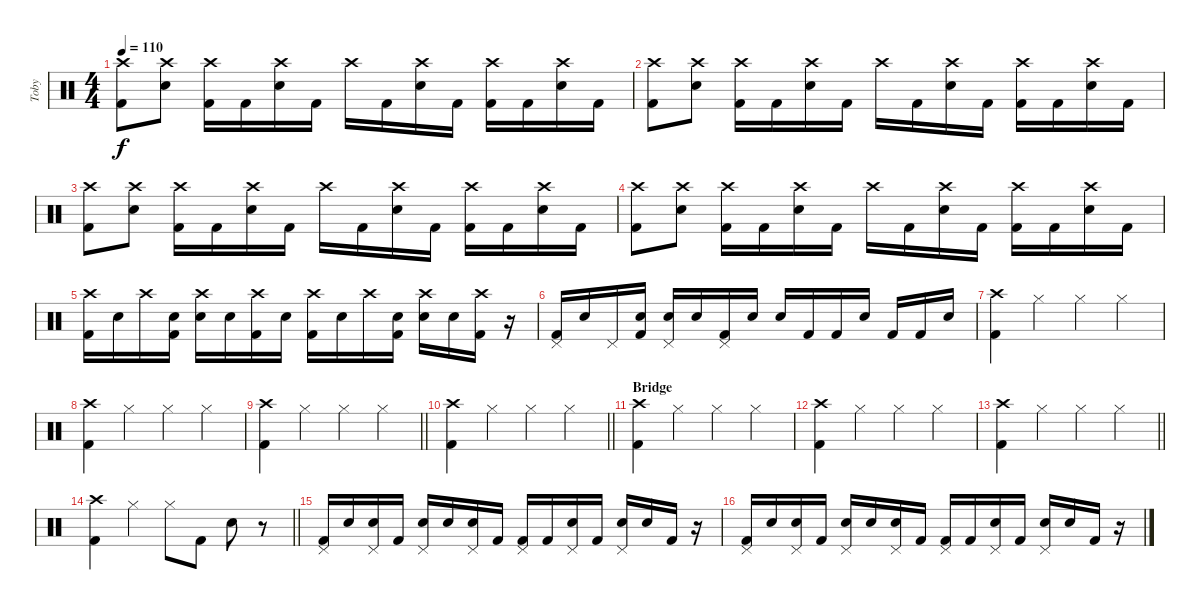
\track ("Toby" "Toby") {instrument percussion}
\staff {score}
\articulation defaults
\ts (4 4)
\tempo 110
\clef neutral
\ks c
("Crash high (hit)" "Kick (hit) 2").8{dy f} ("Crash high (hit)" "Electric Snare (hit)").8 ("Crash high (hit)" "Kick (hit) 2").16 "Kick (hit) 2".16 ("Crash high (hit)" "Electric Snare (hit)").16 "Kick (hit) 2".16 "Crash high (hit)".16 "Kick (hit) 2".16 ("Crash high (hit)" "Electric Snare (hit)").16 "Kick (hit) 2".16 ("Crash high (hit)" "Kick (hit) 2").16 "Kick (hit) 2".16 ("Crash high (hit)" "Electric Snare (hit)").16 "Kick (hit) 2".16 |
("Crash high (hit)" "Kick (hit) 2").8 ("Crash high (hit)" "Electric Snare (hit)").8 ("Crash high (hit)" "Kick (hit) 2").16 "Kick (hit) 2".16 ("Crash high (hit)" "Electric Snare (hit)").16 "Kick (hit) 2".16 "Crash high (hit)".16 "Kick (hit) 2".16 ("Crash high (hit)" "Electric Snare (hit)").16 "Kick (hit) 2".16 ("Crash high (hit)" "Kick (hit) 2").16 "Kick (hit) 2".16 ("Crash high (hit)" "Electric Snare (hit)").16 "Kick (hit) 2".16 |
("Crash high (hit)" "Kick (hit) 2").8 ("Crash high (hit)" "Electric Snare (hit)").8 ("Crash high (hit)" "Kick (hit) 2").16 "Kick (hit) 2".16 ("Crash high (hit)" "Electric Snare (hit)").16 "Kick (hit) 2".16 "Crash high (hit)".16 "Kick (hit) 2".16 ("Crash high (hit)" "Electric Snare (hit)").16 "Kick (hit) 2".16 ("Crash high (hit)" "Kick (hit) 2").16 "Kick (hit) 2".16 ("Crash high (hit)" "Electric Snare (hit)").16 "Kick (hit) 2".16 |
("Crash high (hit)" "Kick (hit) 2").8 ("Crash high (hit)" "Electric Snare (hit)").8 ("Crash high (hit)" "Kick (hit) 2").16 "Kick (hit) 2".16 ("Crash high (hit)" "Electric Snare (hit)").16 "Kick (hit) 2".16 "Crash high (hit)".16 "Kick (hit) 2".16 ("Crash high (hit)" "Electric Snare (hit)").16 "Kick (hit) 2".16 ("Crash high (hit)" "Kick (hit) 2").16 "Kick (hit) 2".16 ("Crash high (hit)" "Electric Snare (hit)").16 "Kick (hit) 2".16 |
("Crash high (hit)" "Kick (hit) 2").16 "Snare (hit)".16 "Crash high (hit)".16 ("Snare (hit)" "Kick (hit) 2").16 ("Crash high (hit)" "Electric Snare (hit)").16 "Snare (hit)".16 ("Crash high (hit)" "Kick (hit) 2").16 "Snare (hit)".16 ("Crash high (hit)" "Kick (hit) 2").16 "Snare (hit)".16 "Crash high (hit)".16 ("Snare (hit)" "Kick (hit) 2").16 ("Crash high (hit)" "Electric Snare (hit)").16 "Snare (hit)".16 ("Crash high (hit)" "Kick (hit) 2").16 r.16 |
("Pedal Hi-Hat (hit)" "Kick (hit) 2").16 "Snare (hit)".16 "Pedal Hi-Hat (hit)".16 ("Snare (hit)" "Kick (hit) 2").16 ("Pedal Hi-Hat (hit)" "Electric Snare (hit)").16 "Snare (hit)".16 ("Pedal Hi-Hat (hit)" "Kick (hit) 2").16 "Snare (hit)".16 "Electric Snare (hit)".16 "Kick (hit) 2".16 "Kick (hit) 2".16 "Electric Snare (hit)".16 "Kick (hit) 2".16 "Kick (hit) 2".16 "Electric Snare (hit)".16 |
("Crash high (hit)" "Kick (hit) 2").4 "Hi-Hat (closed)".4 "Hi-Hat (closed)".4 "Hi-Hat (closed)".4 |
("Crash high (hit)" "Kick (hit) 2").4 "Hi-Hat (closed)".4 "Hi-Hat (closed)".4 "Hi-Hat (closed)".4 |
\barLineRight lightlight
("Crash high (hit)" "Kick (hit) 2").4 "Hi-Hat (closed)".4 "Hi-Hat (closed)".4 "Hi-Hat (closed)".4 |
\barLineRight lightlight
("Crash high (hit)" "Kick (hit) 2").4 "Hi-Hat (closed)".4 "Hi-Hat (closed)".4 "Hi-Hat (closed)".4 |
\section ("" "Bridge")
("Crash high (hit)" "Kick (hit) 2").4 "Hi-Hat (closed)".4 "Hi-Hat (closed)".4 "Hi-Hat (closed)".4 |
("Crash high (hit)" "Kick (hit) 2").4 "Hi-Hat (closed)".4 "Hi-Hat (closed)".4 "Hi-Hat (closed)".4 |
\barLineRight lightlight
("Crash high (hit)" "Kick (hit) 2").4 "Hi-Hat (closed)".4 "Hi-Hat (closed)".4 "Hi-Hat (closed)".4 |
\barLineRight lightlight
("Crash high (hit)" "Kick (hit) 2").4 "Hi-Hat (closed)".4 "Hi-Hat (closed)".8 "Kick (hit) 2".8 "Electric Snare (hit)".8 r.8 |
("Pedal Hi-Hat (hit)" "Kick (hit) 2").16 "Snare (hit)".16 ("Pedal Hi-Hat (hit)" "Snare (hit)").16 "Kick (hit) 2".16 ("Pedal Hi-Hat (hit)" "Electric Snare (hit)").16 "Snare (hit)".16 ("Pedal Hi-Hat (hit)" "Snare (hit)").16 "Kick (hit) 2".16 ("Pedal Hi-Hat (hit)" "Kick (hit) 2").16 "Kick (hit) 2".16 ("Pedal Hi-Hat (hit)" "Snare (hit)").16 "Kick (hit) 2".16 ("Pedal Hi-Hat (hit)" "Electric Snare (hit)").16 "Snare (hit)".16 "Kick (hit) 2".16 r.16 |
("Pedal Hi-Hat (hit)" "Kick (hit) 2").16 "Snare (hit)".16 ("Pedal Hi-Hat (hit)" "Snare (hit)").16 "Kick (hit) 2".16 ("Pedal Hi-Hat (hit)" "Electric Snare (hit)").16 "Snare (hit)".16 ("Pedal Hi-Hat (hit)" "Snare (hit)").16 "Kick (hit) 2".16 ("Pedal Hi-Hat (hit)" "Kick (hit) 2").16 "Kick (hit) 2".16 ("Pedal Hi-Hat (hit)" "Snare (hit)").16 "Kick (hit) 2".16 ("Pedal Hi-Hat (hit)" "Electric Snare (hit)").16 "Snare (hit)".16 "Kick (hit) 2".16 r.16
